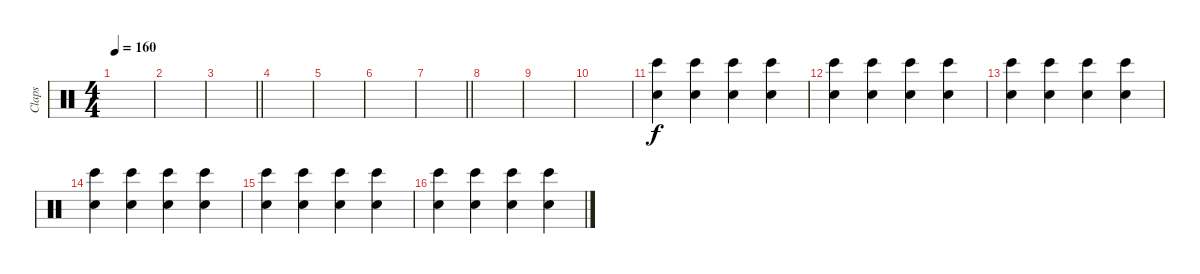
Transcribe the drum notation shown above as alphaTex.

\track ("Claps" "Claps") {instrument percussion}
\staff {score}
\articulation defaults
\ts (4 4)
\tempo 160
\clef neutral
\ks c
|
|
\barLineRight lightlight
|
|
|
|
\barLineRight lightlight
|
|
|
|
("Hand Clap (hit)" "Bongo High (hit)").4 ("Hand Clap (hit)" "Bongo High (hit)").4 ("Hand Clap (hit)" "Bongo High (hit)").4 ("Hand Clap (hit)" "Bongo High (hit)").4 |
("Hand Clap (hit)" "Bongo High (hit)").4 ("Hand Clap (hit)" "Bongo High (hit)").4 ("Hand Clap (hit)" "Bongo High (hit)").4 ("Hand Clap (hit)" "Bongo High (hit)").4 |
("Hand Clap (hit)" "Bongo High (hit)").4 ("Hand Clap (hit)" "Bongo High (hit)").4 ("Hand Clap (hit)" "Bongo High (hit)").4 ("Hand Clap (hit)" "Bongo High (hit)").4 |
("Hand Clap (hit)" "Bongo High (hit)").4 ("Hand Clap (hit)" "Bongo High (hit)").4 ("Hand Clap (hit)" "Bongo High (hit)").4 ("Hand Clap (hit)" "Bongo High (hit)").4 |
("Hand Clap (hit)" "Bongo High (hit)").4 ("Hand Clap (hit)" "Bongo High (hit)").4 ("Hand Clap (hit)" "Bongo High (hit)").4 ("Hand Clap (hit)" "Bongo High (hit)").4 |
("Hand Clap (hit)" "Bongo High (hit)").4 ("Hand Clap (hit)" "Bongo High (hit)").4 ("Hand Clap (hit)" "Bongo High (hit)").4 ("Hand Clap (hit)" "Bongo High (hit)").4
